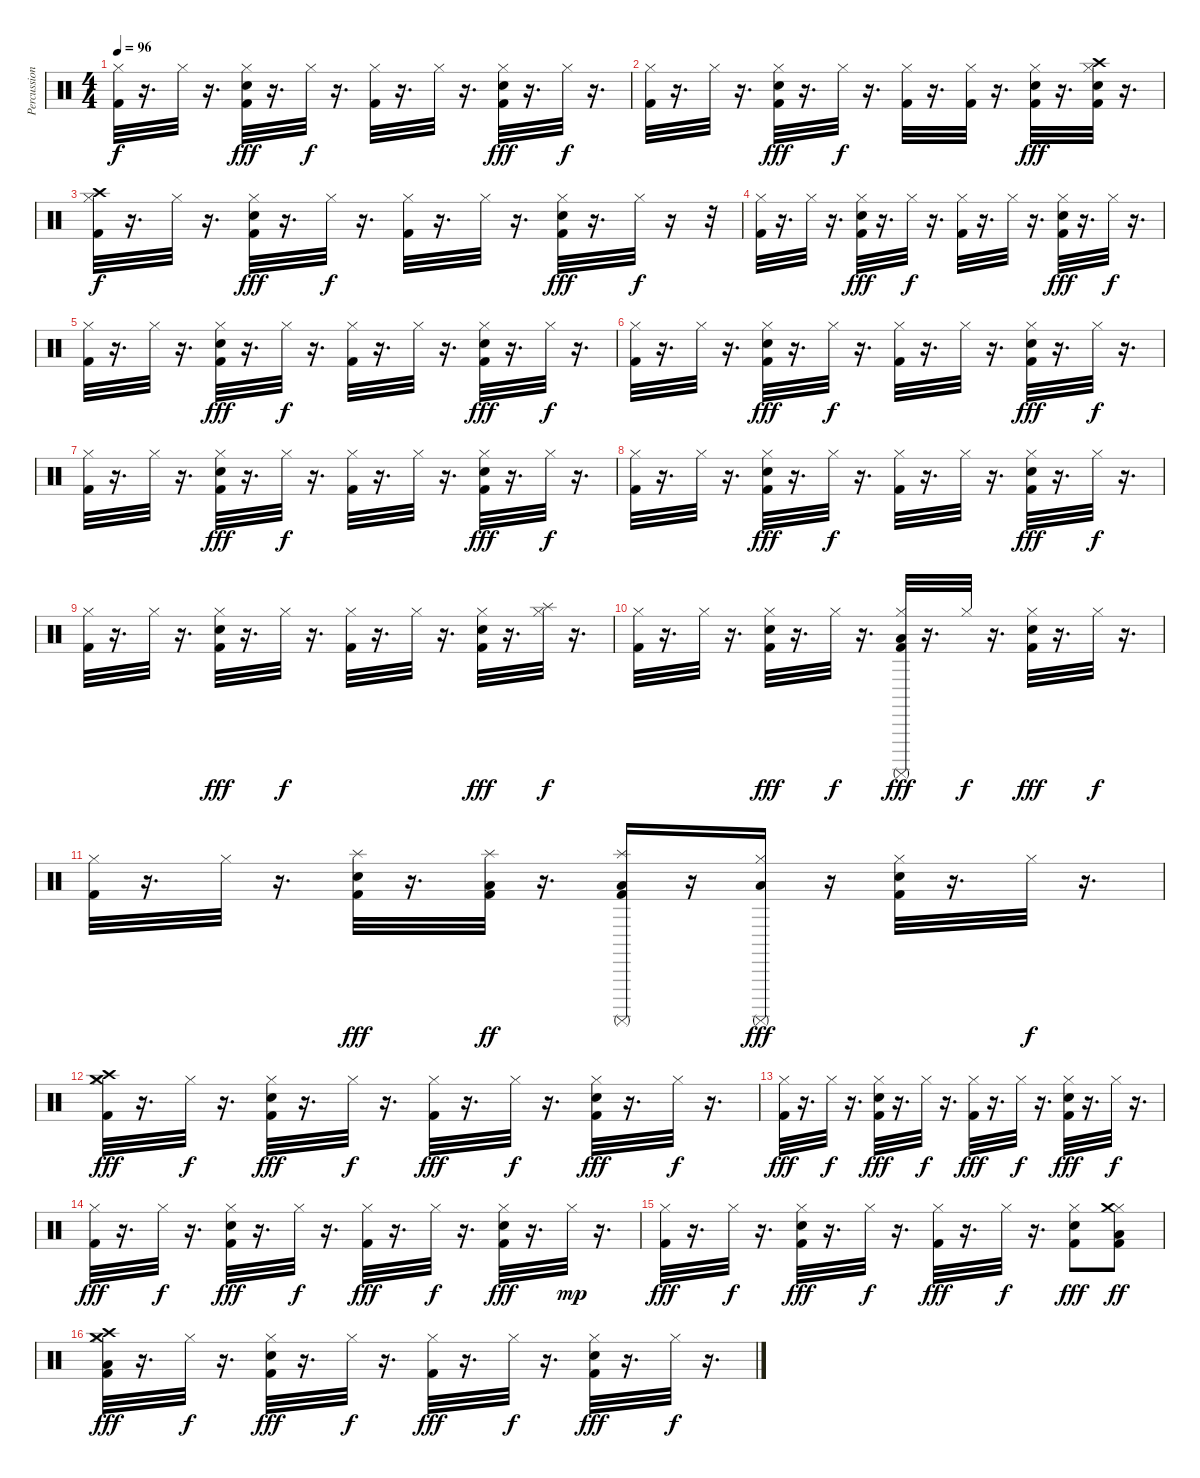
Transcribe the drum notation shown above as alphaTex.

\track ("Percussion" "Percussion") {instrument percussion}
\staff {score}
\articulation defaults
\ts (4 4)
\tempo 96
\clef neutral
\ks c
("Hi-Hat (closed)" "Kick (hit) 2").32{dy f} r.16{d} "Hi-Hat (closed)".32 r.16{d} ("Hi-Hat (closed)" "Snare (hit) 2" "Kick (hit) 2").32{dy fff} r.16{d} "Hi-Hat (closed)".32{dy f} r.16{d} ("Hi-Hat (closed)" "Kick (hit) 2").32 r.16{d} "Hi-Hat (closed)".32 r.16{d} ("Hi-Hat (closed)" "Snare (hit) 2" "Kick (hit) 2").32{dy fff} r.16{d} "Hi-Hat (closed)".32{dy f} r.16{d} |
("Hi-Hat (closed)" "Kick (hit) 2").32 r.16{d} "Hi-Hat (closed)".32 r.16{d} ("Hi-Hat (closed)" "Snare (hit) 2" "Kick (hit) 2").32{dy fff} r.16{d} "Hi-Hat (closed)".32{dy f} r.16{d} ("Hi-Hat (closed)" "Kick (hit) 2").32 r.16{d} ("Hi-Hat (closed)" "Kick (hit) 2").32 r.16{d} ("Hi-Hat (closed)" "Snare (hit) 2" "Kick (hit) 2").32{dy fff} r.16{d} ("Crash high (hit)" "Hi-Hat (closed)" "Snare (hit) 2" "Kick (hit) 2").32 r.16{d} |
("Crash high (hit)" "Hi-Hat (closed)" "Kick (hit) 2").32{dy f} r.16{d} "Hi-Hat (closed)".32 r.16{d} ("Hi-Hat (closed)" "Snare (hit) 2" "Kick (hit) 2").32{dy fff} r.16{d} "Hi-Hat (closed)".32{dy f} r.16{d} ("Hi-Hat (closed)" "Kick (hit) 2").32 r.16{d} "Hi-Hat (closed)".32 r.16{d} ("Hi-Hat (closed)" "Snare (hit) 2" "Kick (hit) 2").32{dy fff} r.16{d} "Hi-Hat (closed)".32{dy f} r.16 r.32 |
("Hi-Hat (closed)" "Kick (hit) 2").32 r.16{d} "Hi-Hat (closed)".32 r.16{d} ("Hi-Hat (closed)" "Snare (hit) 2" "Kick (hit) 2").32{dy fff} r.16{d} "Hi-Hat (closed)".32{dy f} r.16{d} ("Hi-Hat (closed)" "Kick (hit) 2").32 r.16{d} "Hi-Hat (closed)".32 r.16{d} ("Hi-Hat (closed)" "Snare (hit) 2" "Kick (hit) 2").32{dy fff} r.16{d} "Hi-Hat (closed)".32{dy f} r.16{d} |
("Hi-Hat (closed)" "Kick (hit) 2").32 r.16{d} "Hi-Hat (closed)".32 r.16{d} ("Hi-Hat (closed)" "Snare (hit) 2" "Kick (hit) 2").32{dy fff} r.16{d} "Hi-Hat (closed)".32{dy f} r.16{d} ("Hi-Hat (closed)" "Kick (hit) 2").32 r.16{d} "Hi-Hat (closed)".32 r.16{d} ("Hi-Hat (closed)" "Snare (hit) 2" "Kick (hit) 2").32{dy fff} r.16{d} "Hi-Hat (closed)".32{dy f} r.16{d} |
("Hi-Hat (closed)" "Kick (hit) 2").32 r.16{d} "Hi-Hat (closed)".32 r.16{d} ("Hi-Hat (closed)" "Snare (hit) 2" "Kick (hit) 2").32{dy fff} r.16{d} "Hi-Hat (closed)".32{dy f} r.16{d} ("Hi-Hat (closed)" "Kick (hit) 2").32 r.16{d} "Hi-Hat (closed)".32 r.16{d} ("Hi-Hat (closed)" "Snare (hit) 2" "Kick (hit) 2").32{dy fff} r.16{d} "Hi-Hat (closed)".32{dy f} r.16{d} |
("Hi-Hat (closed)" "Kick (hit) 2").32 r.16{d} "Hi-Hat (closed)".32 r.16{d} ("Hi-Hat (closed)" "Snare (hit) 2" "Kick (hit) 2").32{dy fff} r.16{d} "Hi-Hat (closed)".32{dy f} r.16{d} ("Hi-Hat (closed)" "Kick (hit) 2").32 r.16{d} "Hi-Hat (closed)".32 r.16{d} ("Hi-Hat (closed)" "Snare (hit) 2" "Kick (hit) 2").32{dy fff} r.16{d} "Hi-Hat (closed)".32{dy f} r.16{d} |
("Hi-Hat (closed)" "Kick (hit) 2").32 r.16{d} "Hi-Hat (closed)".32 r.16{d} ("Hi-Hat (closed)" "Snare (hit) 2" "Kick (hit) 2").32{dy fff} r.16{d} "Hi-Hat (closed)".32{dy f} r.16{d} ("Hi-Hat (closed)" "Kick (hit) 2").32 r.16{d} "Hi-Hat (closed)".32 r.16{d} ("Hi-Hat (closed)" "Snare (hit) 2" "Kick (hit) 2").32{dy fff} r.16{d} "Hi-Hat (closed)".32{dy f} r.16{d} |
("Hi-Hat (closed)" "Kick (hit) 2").32 r.16{d} "Hi-Hat (closed)".32 r.16{d} ("Hi-Hat (closed)" "Snare (hit) 2" "Kick (hit) 2").32{dy fff} r.16{d} "Hi-Hat (closed)".32{dy f} r.16{d} ("Hi-Hat (closed)" "Kick (hit) 2").32 r.16{d} "Hi-Hat (closed)".32 r.16{d} ("Hi-Hat (closed)" "Snare (hit) 2" "Kick (hit) 2").32{dy fff} r.16{d} ("Hi-Hat (closed)" "Splash (hit)").32{dy f} r.16{d} |
("Hi-Hat (closed)" "Kick (hit) 2").32 r.16{d} "Hi-Hat (closed)".32 r.16{d} ("Hi-Hat (closed)" "Snare (hit) 2" "Kick (hit) 2").32{dy fff} r.16{d} "Hi-Hat (closed)".32{dy f} r.16{d} ("Hi-Hat (closed)" "Kick (hit) 2" "Low Floor Tom (hit)" "Surdo (mute)").32{dy fff} r.16{d} "Hi-Hat (closed)".32{dy f} r.16{d} ("Hi-Hat (closed)" "Snare (hit) 2" "Kick (hit) 2").32{dy fff} r.16{d} "Hi-Hat (closed)".32{dy f} r.16{d} |
("Hi-Hat (closed)" "Kick (hit) 2").32 r.16{d} "Hi-Hat (closed)".32 r.16{d} ("Splash (hit)" "Snare (hit) 2" "Kick (hit) 2").32{dy fff} r.16{d} ("Splash (hit)" "Kick (hit) 2" "Low Floor Tom (hit)").32{dy ff} r.16{d} ("Splash (hit)" "Kick (hit) 2" "Low Floor Tom (hit)" "Surdo (mute)").16 r.16 ("Hi-Hat (closed)" "Low Floor Tom (hit)" "Surdo (mute)").16{dy fff} r.16 ("Hi-Hat (closed)" "Snare (hit) 2" "Kick (hit) 2").32 r.16{d} "Hi-Hat (closed)".32{dy f} r.16{d} |
("Crash high (hit)" "Hi-Hat (closed)" "Kick (hit) 2" "Crash medium (hit)").32{dy fff} r.16{d} "Hi-Hat (closed)".32{dy f} r.16{d} ("Hi-Hat (closed)" "Snare (hit) 2" "Kick (hit) 2").32{dy fff} r.16{d} "Hi-Hat (closed)".32{dy f} r.16{d} ("Hi-Hat (closed)" "Kick (hit) 2").32{dy fff} r.16{d} "Hi-Hat (closed)".32{dy f} r.16{d} ("Hi-Hat (closed)" "Snare (hit) 2" "Kick (hit) 2").32{dy fff} r.16{d} "Hi-Hat (closed)".32{dy f} r.16{d} |
("Hi-Hat (closed)" "Kick (hit) 2").32{dy fff} r.16{d} "Hi-Hat (closed)".32{dy f} r.16{d} ("Hi-Hat (closed)" "Snare (hit) 2" "Kick (hit) 2").32{dy fff} r.16{d} "Hi-Hat (closed)".32{dy f} r.16{d} ("Hi-Hat (closed)" "Kick (hit) 2").32{dy fff} r.16{d} "Hi-Hat (closed)".32{dy f} r.16{d} ("Hi-Hat (closed)" "Snare (hit) 2" "Kick (hit) 2").32{dy fff} r.16{d} "Hi-Hat (closed)".32{dy f} r.16{d} |
("Hi-Hat (closed)" "Kick (hit) 2").32{dy fff} r.16{d} "Hi-Hat (closed)".32{dy f} r.16{d} ("Hi-Hat (closed)" "Snare (hit) 2" "Kick (hit) 2").32{dy fff} r.16{d} "Hi-Hat (closed)".32{dy f} r.16{d} ("Hi-Hat (closed)" "Kick (hit) 2").32{dy fff} r.16{d} "Hi-Hat (closed)".32{dy f} r.16{d} ("Hi-Hat (closed)" "Snare (hit) 2" "Kick (hit) 2").32{dy fff} r.16{d} "Hi-Hat (closed)".32{dy mp} r.16{d} |
("Hi-Hat (closed)" "Kick (hit) 2").32{dy fff} r.16{d} "Hi-Hat (closed)".32{dy f} r.16{d} ("Hi-Hat (closed)" "Snare (hit) 2" "Kick (hit) 2").32{dy fff} r.16{d} "Hi-Hat (closed)".32{dy f} r.16{d} ("Hi-Hat (closed)" "Kick (hit) 2").32{dy fff} r.16{d} "Hi-Hat (closed)".32{dy f} r.16{d} ("Hi-Hat (closed)" "Snare (hit) 2" "Kick (hit) 2").8{dy fff} ("Low Floor Tom (hit)" "Hi-Hat (closed)" "Kick (hit) 2" "Crash medium (hit)").8{dy ff} |
("Hi-Hat (closed)" "Kick (hit) 2" "Low Floor Tom (hit)" "Crash high (hit)" "Crash medium (hit)").32{dy fff} r.16{d} "Hi-Hat (closed)".32{dy f} r.16{d} ("Hi-Hat (closed)" "Snare (hit) 2" "Kick (hit) 2").32{dy fff} r.16{d} "Hi-Hat (closed)".32{dy f} r.16{d} ("Hi-Hat (closed)" "Kick (hit) 2").32{dy fff} r.16{d} "Hi-Hat (closed)".32{dy f} r.16{d} ("Hi-Hat (closed)" "Snare (hit) 2" "Kick (hit) 2").32{dy fff} r.16{d} "Hi-Hat (closed)".32{dy f} r.16{d}
